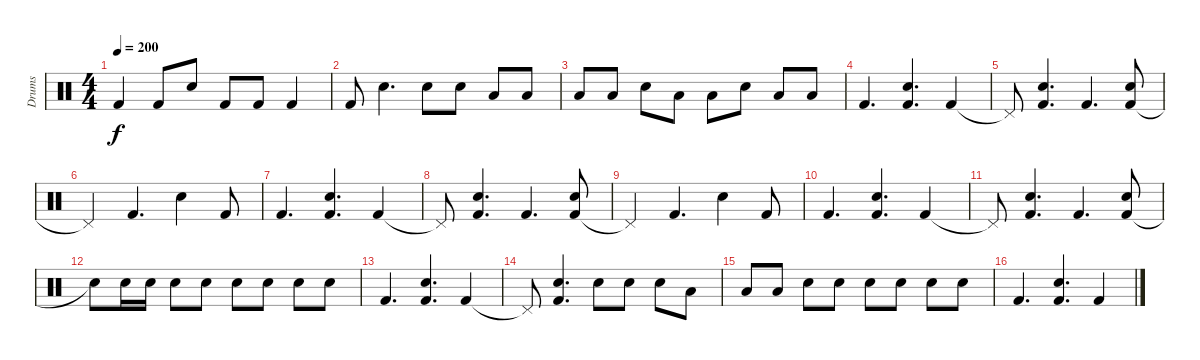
\track ("Drums" "Drums") {instrument percussion}
\staff {score}
\articulation defaults
\ts (4 4)
\tempo 200
\clef neutral
\ks c "Kick (hit) 2".4{dy f} "Kick (hit) 2".8 "Snare (hit) 2".8 "Kick (hit) 2".8 "Kick (hit) 2".8 "Kick (hit) 2".4
|
"Kick (hit) 2".8 "Snare (hit) 2".4{d} "Snare (hit) 2".8 "Snare (hit) 2".8 "Low Tom (hit)".8 "Low Tom (hit)".8 |
"Low Tom (hit)".8 "Low Tom (hit)".8 "Snare (hit) 2".8 "Low Tom (hit)".8 "Low Tom (hit)".8 "Snare (hit) 2".8 "Low Tom (hit)".8 "Low Tom (hit)".8 |
"Kick (hit) 2".4{d} ("Kick (hit) 2" "Snare (hit) 2").4{d} "Kick (hit) 2".4 |
"Pedal Hi-Hat (hit)"{t}.8 ("Kick (hit) 2" "Snare (hit) 2").4{d} "Kick (hit) 2".4{d} ("Kick (hit) 2" "Snare (hit) 2").8 |
"Pedal Hi-Hat (hit)"{t}.4 "Kick (hit) 2".4{d} "Snare (hit) 2".4 "Kick (hit) 2".8 |
"Kick (hit) 2".4{d} ("Kick (hit) 2" "Snare (hit) 2").4{d} "Kick (hit) 2".4 |
"Pedal Hi-Hat (hit)"{t}.8 ("Kick (hit) 2" "Snare (hit) 2").4{d} "Kick (hit) 2".4{d} ("Kick (hit) 2" "Snare (hit) 2").8 |
"Pedal Hi-Hat (hit)"{t}.4 "Kick (hit) 2".4{d} "Snare (hit) 2".4 "Kick (hit) 2".8 |
"Kick (hit) 2".4{d} ("Kick (hit) 2" "Snare (hit) 2").4{d} "Kick (hit) 2".4 |
"Pedal Hi-Hat (hit)"{t}.8 ("Kick (hit) 2" "Snare (hit) 2").4{d} "Kick (hit) 2".4{d} ("Kick (hit) 2" "Snare (hit) 2").8 |
"Snare (hit)"{t}.8 "Snare (hit) 2".16 "Snare (hit) 2".16 "Snare (hit) 2".8 "Snare (hit) 2".8 "Snare (hit) 2".8 "Snare (hit) 2".8 "Snare (hit) 2".8 "Snare (hit) 2".8 |
"Kick (hit) 2".4{d} ("Kick (hit) 2" "Snare (hit) 2").4{d} "Kick (hit) 2".4 |
"Pedal Hi-Hat (hit)"{t}.8 ("Kick (hit) 2" "Snare (hit) 2").4{d} "Snare (hit) 2".8 "Snare (hit) 2".8 "Snare (hit) 2".8 "Low Tom (hit)".8 |
"Low Tom (hit)".8 "Low Tom (hit)".8 "Snare (hit) 2".8 "Snare (hit) 2".8 "Snare (hit) 2".8 "Snare (hit) 2".8 "Snare (hit) 2".8 "Snare (hit) 2".8 |
"Kick (hit) 2".4{d} ("Kick (hit) 2" "Snare (hit) 2").4{d} "Kick (hit) 2".4
